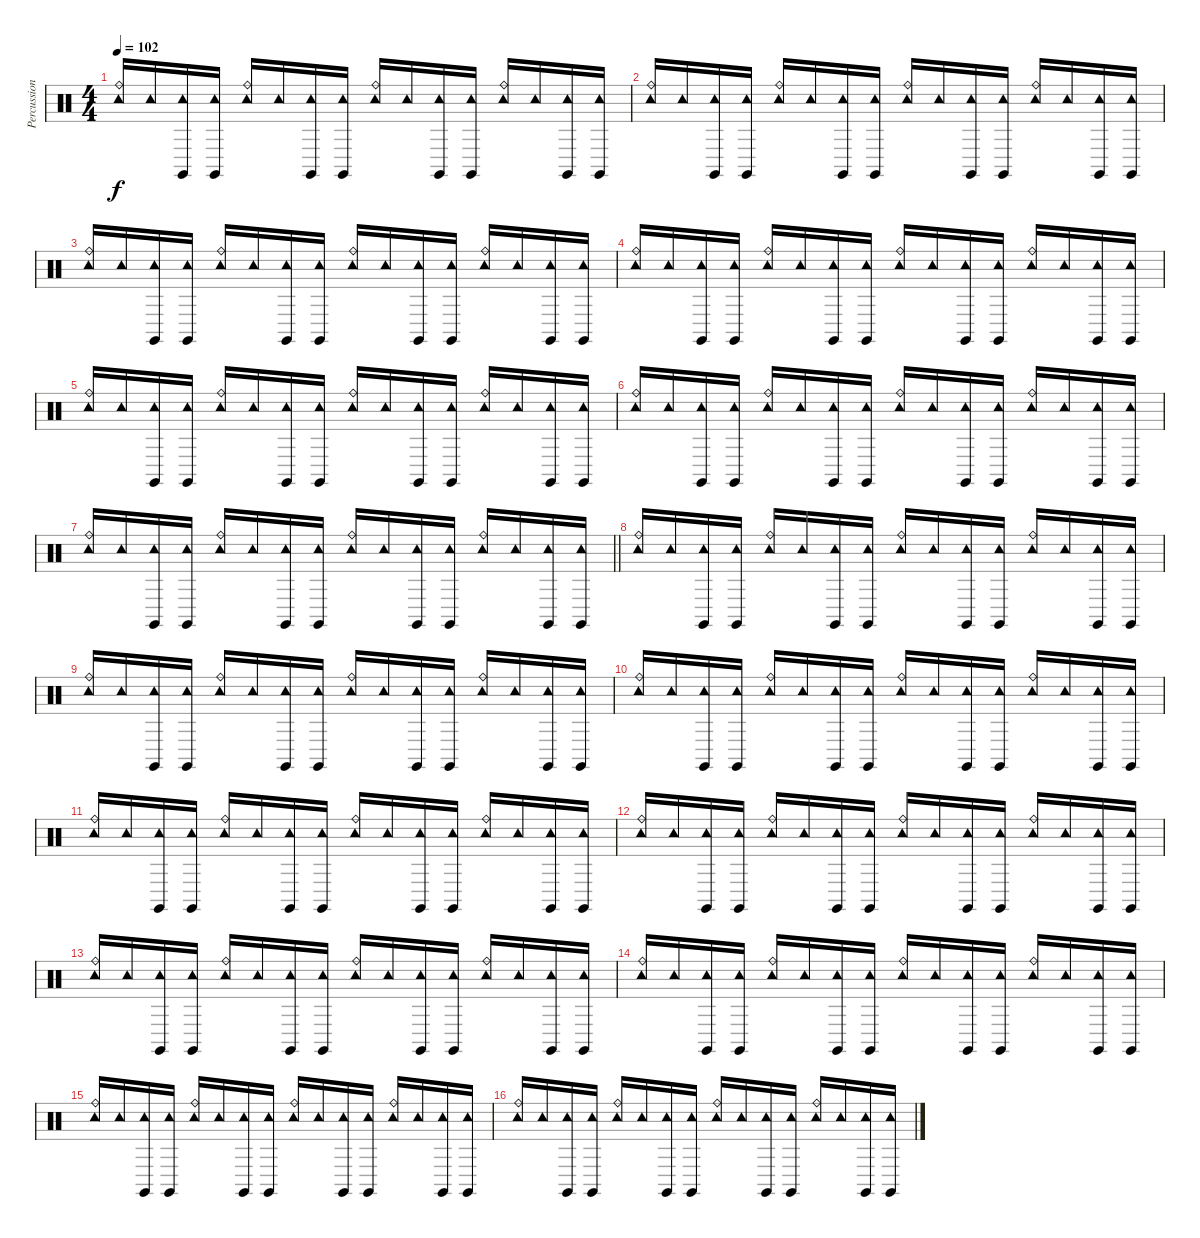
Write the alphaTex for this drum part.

\track ("Percussions" "Percussion") {instrument percussion}
\staff {score}
\articulation defaults
\ts (4 4)
\tempo 102
\clef neutral
\ks c
("Tambourine (hit)" "Ride (bell)").16{dy f} "Tambourine (hit)".16 ("Tambourine (hit)" "Claves (hit)").16 ("Tambourine (hit)" "Claves (hit)").16 ("Tambourine (hit)" "Ride (bell)").16 "Tambourine (hit)".16 ("Tambourine (hit)" "Claves (hit)").16 ("Tambourine (hit)" "Claves (hit)").16 ("Tambourine (hit)" "Ride (bell)").16 "Tambourine (hit)".16 ("Tambourine (hit)" "Claves (hit)").16 ("Tambourine (hit)" "Claves (hit)").16 ("Tambourine (hit)" "Ride (bell)").16 "Tambourine (hit)".16 ("Tambourine (hit)" "Claves (hit)").16 ("Tambourine (hit)" "Claves (hit)").16 |
("Tambourine (hit)" "Ride (bell)").16 "Tambourine (hit)".16 ("Tambourine (hit)" "Claves (hit)").16 ("Tambourine (hit)" "Claves (hit)").16 ("Tambourine (hit)" "Ride (bell)").16 "Tambourine (hit)".16 ("Tambourine (hit)" "Claves (hit)").16 ("Tambourine (hit)" "Claves (hit)").16 ("Tambourine (hit)" "Ride (bell)").16 "Tambourine (hit)".16 ("Tambourine (hit)" "Claves (hit)").16 ("Tambourine (hit)" "Claves (hit)").16 ("Tambourine (hit)" "Ride (bell)").16 "Tambourine (hit)".16 ("Tambourine (hit)" "Claves (hit)").16 ("Tambourine (hit)" "Claves (hit)").16 |
("Tambourine (hit)" "Ride (bell)").16 "Tambourine (hit)".16 ("Tambourine (hit)" "Claves (hit)").16 ("Tambourine (hit)" "Claves (hit)").16 ("Tambourine (hit)" "Ride (bell)").16 "Tambourine (hit)".16 ("Tambourine (hit)" "Claves (hit)").16 ("Tambourine (hit)" "Claves (hit)").16 ("Tambourine (hit)" "Ride (bell)").16 "Tambourine (hit)".16 ("Tambourine (hit)" "Claves (hit)").16 ("Tambourine (hit)" "Claves (hit)").16 ("Tambourine (hit)" "Ride (bell)").16 "Tambourine (hit)".16 ("Tambourine (hit)" "Claves (hit)").16 ("Tambourine (hit)" "Claves (hit)").16 |
("Tambourine (hit)" "Ride (bell)").16 "Tambourine (hit)".16 ("Tambourine (hit)" "Claves (hit)").16 ("Tambourine (hit)" "Claves (hit)").16 ("Tambourine (hit)" "Ride (bell)").16 "Tambourine (hit)".16 ("Tambourine (hit)" "Claves (hit)").16 ("Tambourine (hit)" "Claves (hit)").16 ("Tambourine (hit)" "Ride (bell)").16 "Tambourine (hit)".16 ("Tambourine (hit)" "Claves (hit)").16 ("Tambourine (hit)" "Claves (hit)").16 ("Tambourine (hit)" "Ride (bell)").16 "Tambourine (hit)".16 ("Tambourine (hit)" "Claves (hit)").16 ("Tambourine (hit)" "Claves (hit)").16 |
("Tambourine (hit)" "Ride (bell)").16 "Tambourine (hit)".16 ("Tambourine (hit)" "Claves (hit)").16 ("Tambourine (hit)" "Claves (hit)").16 ("Tambourine (hit)" "Ride (bell)").16 "Tambourine (hit)".16 ("Tambourine (hit)" "Claves (hit)").16 ("Tambourine (hit)" "Claves (hit)").16 ("Tambourine (hit)" "Ride (bell)").16 "Tambourine (hit)".16 ("Tambourine (hit)" "Claves (hit)").16 ("Tambourine (hit)" "Claves (hit)").16 ("Tambourine (hit)" "Ride (bell)").16 "Tambourine (hit)".16 ("Tambourine (hit)" "Claves (hit)").16 ("Tambourine (hit)" "Claves (hit)").16 |
("Tambourine (hit)" "Ride (bell)").16 "Tambourine (hit)".16 ("Tambourine (hit)" "Claves (hit)").16 ("Tambourine (hit)" "Claves (hit)").16 ("Tambourine (hit)" "Ride (bell)").16 "Tambourine (hit)".16 ("Tambourine (hit)" "Claves (hit)").16 ("Tambourine (hit)" "Claves (hit)").16 ("Tambourine (hit)" "Ride (bell)").16 "Tambourine (hit)".16 ("Tambourine (hit)" "Claves (hit)").16 ("Tambourine (hit)" "Claves (hit)").16 ("Tambourine (hit)" "Ride (bell)").16 "Tambourine (hit)".16 ("Tambourine (hit)" "Claves (hit)").16 ("Tambourine (hit)" "Claves (hit)").16 |
\barLineRight lightlight
("Tambourine (hit)" "Ride (bell)").16 "Tambourine (hit)".16 ("Tambourine (hit)" "Claves (hit)").16 ("Tambourine (hit)" "Claves (hit)").16 ("Tambourine (hit)" "Ride (bell)").16 "Tambourine (hit)".16 ("Tambourine (hit)" "Claves (hit)").16 ("Tambourine (hit)" "Claves (hit)").16 ("Tambourine (hit)" "Ride (bell)").16 "Tambourine (hit)".16 ("Tambourine (hit)" "Claves (hit)").16 ("Tambourine (hit)" "Claves (hit)").16 ("Tambourine (hit)" "Ride (bell)").16 "Tambourine (hit)".16 ("Tambourine (hit)" "Claves (hit)").16 ("Tambourine (hit)" "Claves (hit)").16 |
("Tambourine (hit)" "Ride (bell)").16 "Tambourine (hit)".16 ("Tambourine (hit)" "Claves (hit)").16 ("Tambourine (hit)" "Claves (hit)").16 ("Tambourine (hit)" "Ride (bell)").16 "Tambourine (hit)".16 ("Tambourine (hit)" "Claves (hit)").16 ("Tambourine (hit)" "Claves (hit)").16 ("Tambourine (hit)" "Ride (bell)").16 "Tambourine (hit)".16 ("Tambourine (hit)" "Claves (hit)").16 ("Tambourine (hit)" "Claves (hit)").16 ("Tambourine (hit)" "Ride (bell)").16 "Tambourine (hit)".16 ("Tambourine (hit)" "Claves (hit)").16 ("Tambourine (hit)" "Claves (hit)").16 |
("Tambourine (hit)" "Ride (bell)").16 "Tambourine (hit)".16 ("Tambourine (hit)" "Claves (hit)").16 ("Tambourine (hit)" "Claves (hit)").16 ("Tambourine (hit)" "Ride (bell)").16 "Tambourine (hit)".16 ("Tambourine (hit)" "Claves (hit)").16 ("Tambourine (hit)" "Claves (hit)").16 ("Tambourine (hit)" "Ride (bell)").16 "Tambourine (hit)".16 ("Tambourine (hit)" "Claves (hit)").16 ("Tambourine (hit)" "Claves (hit)").16 ("Tambourine (hit)" "Ride (bell)").16 "Tambourine (hit)".16 ("Tambourine (hit)" "Claves (hit)").16 ("Tambourine (hit)" "Claves (hit)").16 |
("Tambourine (hit)" "Ride (bell)").16 "Tambourine (hit)".16 ("Tambourine (hit)" "Claves (hit)").16 ("Tambourine (hit)" "Claves (hit)").16 ("Tambourine (hit)" "Ride (bell)").16 "Tambourine (hit)".16 ("Tambourine (hit)" "Claves (hit)").16 ("Tambourine (hit)" "Claves (hit)").16 ("Tambourine (hit)" "Ride (bell)").16 "Tambourine (hit)".16 ("Tambourine (hit)" "Claves (hit)").16 ("Tambourine (hit)" "Claves (hit)").16 ("Tambourine (hit)" "Ride (bell)").16 "Tambourine (hit)".16 ("Tambourine (hit)" "Claves (hit)").16 ("Tambourine (hit)" "Claves (hit)").16 |
("Tambourine (hit)" "Ride (bell)").16 "Tambourine (hit)".16 ("Tambourine (hit)" "Claves (hit)").16 ("Tambourine (hit)" "Claves (hit)").16 ("Tambourine (hit)" "Ride (bell)").16 "Tambourine (hit)".16 ("Tambourine (hit)" "Claves (hit)").16 ("Tambourine (hit)" "Claves (hit)").16 ("Tambourine (hit)" "Ride (bell)").16 "Tambourine (hit)".16 ("Tambourine (hit)" "Claves (hit)").16 ("Tambourine (hit)" "Claves (hit)").16 ("Tambourine (hit)" "Ride (bell)").16 "Tambourine (hit)".16 ("Tambourine (hit)" "Claves (hit)").16 ("Tambourine (hit)" "Claves (hit)").16 |
("Tambourine (hit)" "Ride (bell)").16 "Tambourine (hit)".16 ("Tambourine (hit)" "Claves (hit)").16 ("Tambourine (hit)" "Claves (hit)").16 ("Tambourine (hit)" "Ride (bell)").16 "Tambourine (hit)".16 ("Tambourine (hit)" "Claves (hit)").16 ("Tambourine (hit)" "Claves (hit)").16 ("Tambourine (hit)" "Ride (bell)").16 "Tambourine (hit)".16 ("Tambourine (hit)" "Claves (hit)").16 ("Tambourine (hit)" "Claves (hit)").16 ("Tambourine (hit)" "Ride (bell)").16 "Tambourine (hit)".16 ("Tambourine (hit)" "Claves (hit)").16 ("Tambourine (hit)" "Claves (hit)").16 |
("Tambourine (hit)" "Ride (bell)").16 "Tambourine (hit)".16 ("Tambourine (hit)" "Claves (hit)").16 ("Tambourine (hit)" "Claves (hit)").16 ("Tambourine (hit)" "Ride (bell)").16 "Tambourine (hit)".16 ("Tambourine (hit)" "Claves (hit)").16 ("Tambourine (hit)" "Claves (hit)").16 ("Tambourine (hit)" "Ride (bell)").16 "Tambourine (hit)".16 ("Tambourine (hit)" "Claves (hit)").16 ("Tambourine (hit)" "Claves (hit)").16 ("Tambourine (hit)" "Ride (bell)").16 "Tambourine (hit)".16 ("Tambourine (hit)" "Claves (hit)").16 ("Tambourine (hit)" "Claves (hit)").16 |
("Tambourine (hit)" "Ride (bell)").16 "Tambourine (hit)".16 ("Tambourine (hit)" "Claves (hit)").16 ("Tambourine (hit)" "Claves (hit)").16 ("Tambourine (hit)" "Ride (bell)").16 "Tambourine (hit)".16 ("Tambourine (hit)" "Claves (hit)").16 ("Tambourine (hit)" "Claves (hit)").16 ("Tambourine (hit)" "Ride (bell)").16 "Tambourine (hit)".16 ("Tambourine (hit)" "Claves (hit)").16 ("Tambourine (hit)" "Claves (hit)").16 ("Tambourine (hit)" "Ride (bell)").16 "Tambourine (hit)".16 ("Tambourine (hit)" "Claves (hit)").16 ("Tambourine (hit)" "Claves (hit)").16 |
("Tambourine (hit)" "Ride (bell)").16 "Tambourine (hit)".16 ("Tambourine (hit)" "Claves (hit)").16 ("Tambourine (hit)" "Claves (hit)").16 ("Tambourine (hit)" "Ride (bell)").16 "Tambourine (hit)".16 ("Tambourine (hit)" "Claves (hit)").16 ("Tambourine (hit)" "Claves (hit)").16 ("Tambourine (hit)" "Ride (bell)").16 "Tambourine (hit)".16 ("Tambourine (hit)" "Claves (hit)").16 ("Tambourine (hit)" "Claves (hit)").16 ("Tambourine (hit)" "Ride (bell)").16 "Tambourine (hit)".16 ("Tambourine (hit)" "Claves (hit)").16 ("Tambourine (hit)" "Claves (hit)").16 |
("Tambourine (hit)" "Ride (bell)").16 "Tambourine (hit)".16 ("Tambourine (hit)" "Claves (hit)").16 ("Tambourine (hit)" "Claves (hit)").16 ("Tambourine (hit)" "Ride (bell)").16 "Tambourine (hit)".16 ("Tambourine (hit)" "Claves (hit)").16 ("Tambourine (hit)" "Claves (hit)").16 ("Tambourine (hit)" "Ride (bell)").16 "Tambourine (hit)".16 ("Tambourine (hit)" "Claves (hit)").16 ("Tambourine (hit)" "Claves (hit)").16 ("Tambourine (hit)" "Ride (bell)").16 "Tambourine (hit)".16 ("Tambourine (hit)" "Claves (hit)").16 ("Tambourine (hit)" "Claves (hit)").16
